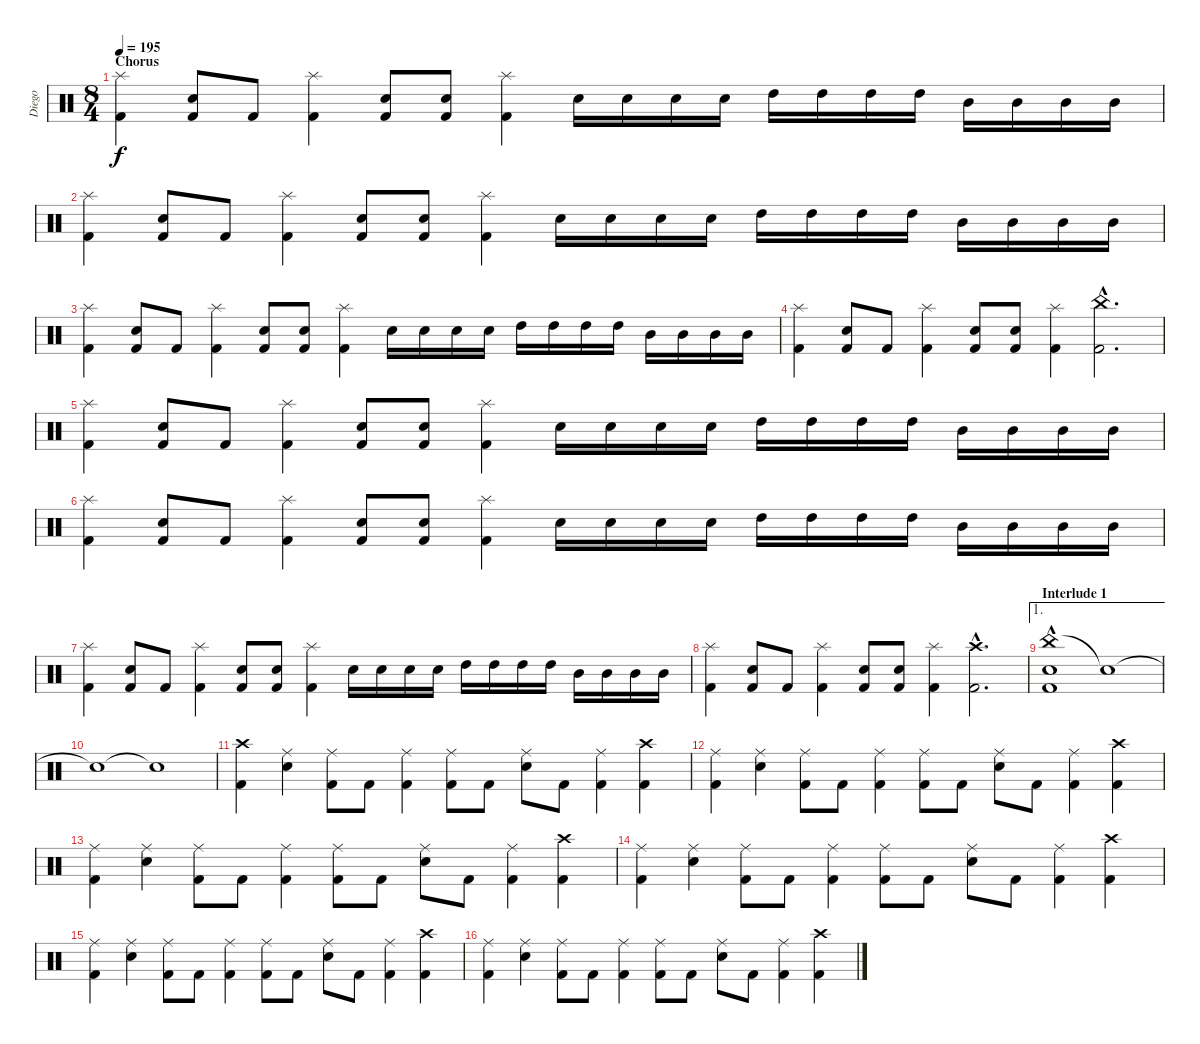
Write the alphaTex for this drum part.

\track ("Diego" "Diego") {instrument percussion}
\staff {score}
\articulation defaults
\ts (8 4)
\section ("" "Chorus")
\tempo 195
\clef neutral
\ks c
("Splash (hit)" "Kick (hit) 2").4{dy f} ("Electric Snare (hit)" "Kick (hit) 2").8 "Kick (hit) 2".8 ("Splash (hit)" "Kick (hit) 2").4 ("Electric Snare (hit)" "Kick (hit) 2").8 ("Electric Snare (hit)" "Kick (hit) 2").8 ("Splash (hit)" "Kick (hit) 2").4 "Electric Snare (hit)".16 "Electric Snare (hit)".16 "Electric Snare (hit)".16 "Electric Snare (hit)".16 "High Tom (hit)".16 "High Tom (hit)".16 "High Tom (hit)".16 "High Tom (hit)".16 "Mid Tom (hit)".16 "Mid Tom (hit)".16 "Mid Tom (hit)".16 "Mid Tom (hit)".16 |
("Splash (hit)" "Kick (hit) 2").4 ("Electric Snare (hit)" "Kick (hit) 2").8 "Kick (hit) 2".8 ("Splash (hit)" "Kick (hit) 2").4 ("Electric Snare (hit)" "Kick (hit) 2").8 ("Electric Snare (hit)" "Kick (hit) 2").8 ("Splash (hit)" "Kick (hit) 2").4 "Electric Snare (hit)".16 "Electric Snare (hit)".16 "Electric Snare (hit)".16 "Electric Snare (hit)".16 "High Tom (hit)".16 "High Tom (hit)".16 "High Tom (hit)".16 "High Tom (hit)".16 "Mid Tom (hit)".16 "Mid Tom (hit)".16 "Mid Tom (hit)".16 "Mid Tom (hit)".16 |
("Splash (hit)" "Kick (hit) 2").4 ("Electric Snare (hit)" "Kick (hit) 2").8 "Kick (hit) 2".8 ("Splash (hit)" "Kick (hit) 2").4 ("Electric Snare (hit)" "Kick (hit) 2").8 ("Electric Snare (hit)" "Kick (hit) 2").8 ("Splash (hit)" "Kick (hit) 2").4 "Electric Snare (hit)".16 "Electric Snare (hit)".16 "Electric Snare (hit)".16 "Electric Snare (hit)".16 "High Tom (hit)".16 "High Tom (hit)".16 "High Tom (hit)".16 "High Tom (hit)".16 "Mid Tom (hit)".16 "Mid Tom (hit)".16 "Mid Tom (hit)".16 "Mid Tom (hit)".16 |
("Splash (hit)" "Kick (hit) 2").4 ("Electric Snare (hit)" "Kick (hit) 2").8 "Kick (hit) 2".8 ("Splash (hit)" "Kick (hit) 2").4 ("Electric Snare (hit)" "Kick (hit) 2").8 ("Electric Snare (hit)" "Kick (hit) 2").8 ("Splash (hit)" "Kick (hit) 2").4 ("China (hit)"{hac} "Kick (hit) 2"{hac}).2{d} |
("Splash (hit)" "Kick (hit) 2").4 ("Electric Snare (hit)" "Kick (hit) 2").8 "Kick (hit) 2".8 ("Splash (hit)" "Kick (hit) 2").4 ("Electric Snare (hit)" "Kick (hit) 2").8 ("Electric Snare (hit)" "Kick (hit) 2").8 ("Splash (hit)" "Kick (hit) 2").4 "Electric Snare (hit)".16 "Electric Snare (hit)".16 "Electric Snare (hit)".16 "Electric Snare (hit)".16 "High Tom (hit)".16 "High Tom (hit)".16 "High Tom (hit)".16 "High Tom (hit)".16 "Mid Tom (hit)".16 "Mid Tom (hit)".16 "Mid Tom (hit)".16 "Mid Tom (hit)".16 |
("Splash (hit)" "Kick (hit) 2").4 ("Electric Snare (hit)" "Kick (hit) 2").8 "Kick (hit) 2".8 ("Splash (hit)" "Kick (hit) 2").4 ("Electric Snare (hit)" "Kick (hit) 2").8 ("Electric Snare (hit)" "Kick (hit) 2").8 ("Splash (hit)" "Kick (hit) 2").4 "Electric Snare (hit)".16 "Electric Snare (hit)".16 "Electric Snare (hit)".16 "Electric Snare (hit)".16 "High Tom (hit)".16 "High Tom (hit)".16 "High Tom (hit)".16 "High Tom (hit)".16 "Mid Tom (hit)".16 "Mid Tom (hit)".16 "Mid Tom (hit)".16 "Mid Tom (hit)".16 |
("Splash (hit)" "Kick (hit) 2").4 ("Electric Snare (hit)" "Kick (hit) 2").8 "Kick (hit) 2".8 ("Splash (hit)" "Kick (hit) 2").4 ("Electric Snare (hit)" "Kick (hit) 2").8 ("Electric Snare (hit)" "Kick (hit) 2").8 ("Splash (hit)" "Kick (hit) 2").4 "Electric Snare (hit)".16 "Electric Snare (hit)".16 "Electric Snare (hit)".16 "Electric Snare (hit)".16 "High Tom (hit)".16 "High Tom (hit)".16 "High Tom (hit)".16 "High Tom (hit)".16 "Mid Tom (hit)".16 "Mid Tom (hit)".16 "Mid Tom (hit)".16 "Mid Tom (hit)".16 |
("Splash (hit)" "Kick (hit) 2").4 ("Electric Snare (hit)" "Kick (hit) 2").8 "Kick (hit) 2".8 ("Splash (hit)" "Kick (hit) 2").4 ("Electric Snare (hit)" "Kick (hit) 2").8 ("Electric Snare (hit)" "Kick (hit) 2").8 ("Splash (hit)" "Kick (hit) 2").4 ("Crash high (hit)"{hac} "Kick (hit) 2"{hac}).2{d} |
\ae 1
\section ("" "Interlude 1")
("China (hit)"{hac} "Electric Snare (hit)" "Kick (hit) 2").1 "Snare (hit)"{t}.1 |
"Snare (hit)"{t}.1 "Snare (hit)"{t}.1 |
("Crash high (hit)" "Kick (hit) 2").4 ("Ride (middle)" "Electric Snare (hit)").4 ("Ride (middle)" "Kick (hit) 2").8 "Kick (hit) 2".8 ("Ride (middle)" "Kick (hit) 2").4 ("Ride (middle)" "Kick (hit) 2").8 "Kick (hit) 2".8 ("Ride (middle)" "Electric Snare (hit)").8 "Kick (hit) 2".8 ("Ride (middle)" "Kick (hit) 2").4 ("Crash high (hit)" "Kick (hit) 2").4 |
("Ride (middle)" "Kick (hit) 2").4 ("Ride (middle)" "Electric Snare (hit)").4 ("Ride (middle)" "Kick (hit) 2").8 "Kick (hit) 2".8 ("Ride (middle)" "Kick (hit) 2").4 ("Ride (middle)" "Kick (hit) 2").8 "Kick (hit) 2".8 ("Ride (middle)" "Electric Snare (hit)").8 "Kick (hit) 2".8 ("Ride (middle)" "Kick (hit) 2").4 ("Crash high (hit)" "Kick (hit) 2").4 |
("Ride (middle)" "Kick (hit) 2").4 ("Ride (middle)" "Electric Snare (hit)").4 ("Ride (middle)" "Kick (hit) 2").8 "Kick (hit) 2".8 ("Ride (middle)" "Kick (hit) 2").4 ("Ride (middle)" "Kick (hit) 2").8 "Kick (hit) 2".8 ("Ride (middle)" "Electric Snare (hit)").8 "Kick (hit) 2".8 ("Ride (middle)" "Kick (hit) 2").4 ("Crash high (hit)" "Kick (hit) 2").4 |
("Ride (middle)" "Kick (hit) 2").4 ("Ride (middle)" "Electric Snare (hit)").4 ("Ride (middle)" "Kick (hit) 2").8 "Kick (hit) 2".8 ("Ride (middle)" "Kick (hit) 2").4 ("Ride (middle)" "Kick (hit) 2").8 "Kick (hit) 2".8 ("Ride (middle)" "Electric Snare (hit)").8 "Kick (hit) 2".8 ("Ride (middle)" "Kick (hit) 2").4 ("Crash high (hit)" "Kick (hit) 2").4 |
("Ride (middle)" "Kick (hit) 2").4 ("Ride (middle)" "Electric Snare (hit)").4 ("Ride (middle)" "Kick (hit) 2").8 "Kick (hit) 2".8 ("Ride (middle)" "Kick (hit) 2").4 ("Ride (middle)" "Kick (hit) 2").8 "Kick (hit) 2".8 ("Ride (middle)" "Electric Snare (hit)").8 "Kick (hit) 2".8 ("Ride (middle)" "Kick (hit) 2").4 ("Crash high (hit)" "Kick (hit) 2").4 |
("Ride (middle)" "Kick (hit) 2").4 ("Ride (middle)" "Electric Snare (hit)").4 ("Ride (middle)" "Kick (hit) 2").8 "Kick (hit) 2".8 ("Ride (middle)" "Kick (hit) 2").4 ("Ride (middle)" "Kick (hit) 2").8 "Kick (hit) 2".8 ("Ride (middle)" "Electric Snare (hit)").8 "Kick (hit) 2".8 ("Ride (middle)" "Kick (hit) 2").4 ("Crash high (hit)" "Kick (hit) 2").4
